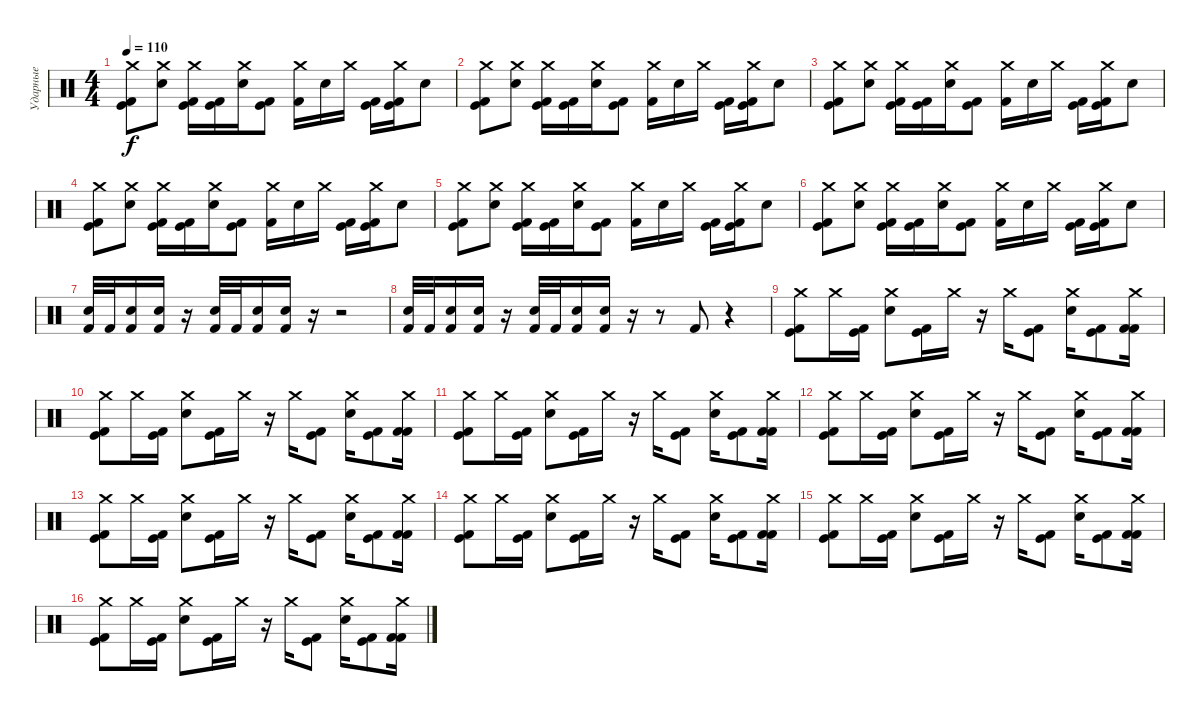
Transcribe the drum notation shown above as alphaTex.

\track ("Ударные" "Ударные") {instrument percussion}
\staff {score}
\articulation defaults
\ts (4 4)
\tempo 110
\clef neutral
\ks c
("Crash medium (hit)" "Kick (hit) 2" "Kick (hit)").8{dy f} ("Crash medium (hit)" "Electric Snare (hit)").8 ("Crash medium (hit)" "Kick (hit) 2" "Kick (hit)").16 ("Kick (hit) 2" "Kick (hit)").16 ("Crash medium (hit)" "Electric Snare (hit)").16 ("Kick (hit) 2" "Kick (hit)").8 ("Crash medium (hit)" "Kick (hit) 2").16 "Electric Snare (hit)".16 "Crash medium (hit)".16 ("Kick (hit) 2" "Kick (hit)").16 ("Crash medium (hit)" "Kick (hit) 2" "Kick (hit)").16 "Electric Snare (hit)".8 |
("Crash medium (hit)" "Kick (hit) 2" "Kick (hit)").8 ("Crash medium (hit)" "Electric Snare (hit)").8 ("Crash medium (hit)" "Kick (hit) 2" "Kick (hit)").16 ("Kick (hit) 2" "Kick (hit)").16 ("Crash medium (hit)" "Electric Snare (hit)").16 ("Kick (hit) 2" "Kick (hit)").8 ("Crash medium (hit)" "Kick (hit) 2").16 "Electric Snare (hit)".16 "Crash medium (hit)".16 ("Kick (hit) 2" "Kick (hit)").16 ("Crash medium (hit)" "Kick (hit) 2" "Kick (hit)").16 "Electric Snare (hit)".8 |
("Crash medium (hit)" "Kick (hit) 2" "Kick (hit)").8 ("Crash medium (hit)" "Electric Snare (hit)").8 ("Crash medium (hit)" "Kick (hit) 2" "Kick (hit)").16 ("Kick (hit) 2" "Kick (hit)").16 ("Crash medium (hit)" "Electric Snare (hit)").16 ("Kick (hit) 2" "Kick (hit)").8 ("Crash medium (hit)" "Kick (hit) 2").16 "Electric Snare (hit)".16 "Crash medium (hit)".16 ("Kick (hit) 2" "Kick (hit)").16 ("Crash medium (hit)" "Kick (hit) 2" "Kick (hit)").16 "Electric Snare (hit)".8 |
("Crash medium (hit)" "Kick (hit) 2" "Kick (hit)").8 ("Crash medium (hit)" "Electric Snare (hit)").8 ("Crash medium (hit)" "Kick (hit) 2" "Kick (hit)").16 ("Kick (hit) 2" "Kick (hit)").16 ("Crash medium (hit)" "Electric Snare (hit)").16 ("Kick (hit) 2" "Kick (hit)").8 ("Crash medium (hit)" "Kick (hit) 2").16 "Electric Snare (hit)".16 "Crash medium (hit)".16 ("Kick (hit) 2" "Kick (hit)").16 ("Crash medium (hit)" "Kick (hit) 2" "Kick (hit)").16 "Electric Snare (hit)".8 |
("Crash medium (hit)" "Kick (hit) 2" "Kick (hit)").8 ("Crash medium (hit)" "Electric Snare (hit)").8 ("Crash medium (hit)" "Kick (hit) 2" "Kick (hit)").16 ("Kick (hit) 2" "Kick (hit)").16 ("Crash medium (hit)" "Electric Snare (hit)").16 ("Kick (hit) 2" "Kick (hit)").8 ("Crash medium (hit)" "Kick (hit) 2").16 "Electric Snare (hit)".16 "Crash medium (hit)".16 ("Kick (hit) 2" "Kick (hit)").16 ("Crash medium (hit)" "Kick (hit) 2" "Kick (hit)").16 "Electric Snare (hit)".8 |
("Crash medium (hit)" "Kick (hit) 2" "Kick (hit)").8 ("Crash medium (hit)" "Electric Snare (hit)").8 ("Crash medium (hit)" "Kick (hit) 2" "Kick (hit)").16 ("Kick (hit) 2" "Kick (hit)").16 ("Crash medium (hit)" "Electric Snare (hit)").16 ("Kick (hit) 2" "Kick (hit)").8 ("Crash medium (hit)" "Kick (hit) 2").16 "Electric Snare (hit)".16 "Crash medium (hit)".16 ("Kick (hit) 2" "Kick (hit)").16 ("Crash medium (hit)" "Kick (hit) 2" "Kick (hit)").16 "Electric Snare (hit)".8 |
("Electric Snare (hit)" "Kick (hit) 2").32 "Kick (hit) 2".32 ("Electric Snare (hit)" "Kick (hit) 2").16 ("Electric Snare (hit)" "Kick (hit) 2").16 r.16 ("Electric Snare (hit)" "Kick (hit) 2").32 "Kick (hit) 2".32 ("Electric Snare (hit)" "Kick (hit) 2").16 ("Electric Snare (hit)" "Kick (hit) 2").16 r.16 r.2 |
("Electric Snare (hit)" "Kick (hit) 2").32 "Kick (hit) 2".32 ("Electric Snare (hit)" "Kick (hit) 2").16 ("Electric Snare (hit)" "Kick (hit) 2").16 r.16 ("Electric Snare (hit)" "Kick (hit) 2").32 "Kick (hit) 2".32 ("Electric Snare (hit)" "Kick (hit) 2").16 ("Electric Snare (hit)" "Kick (hit) 2").16 r.16 r.8 "Kick (hit) 2".8 r.4 |
("Crash medium (hit)" "Kick (hit) 2" "Kick (hit)").8 "Crash medium (hit)".16 ("Kick (hit) 2" "Kick (hit)").16 ("Crash medium (hit)" "Electric Snare (hit)").8 ("Kick (hit) 2" "Kick (hit)").16 "Crash medium (hit)".16 r.16 "Crash medium (hit)".16 ("Kick (hit) 2" "Kick (hit)").8 ("Crash medium (hit)" "Electric Snare (hit)").16 ("Kick (hit) 2" "Kick (hit)").8 ("Crash medium (hit)" "Kick (hit) 2" "Kick (hit) 2").16 |
("Crash medium (hit)" "Kick (hit) 2" "Kick (hit)").8 "Crash medium (hit)".16 ("Kick (hit) 2" "Kick (hit)").16 ("Crash medium (hit)" "Electric Snare (hit)").8 ("Kick (hit) 2" "Kick (hit)").16 "Crash medium (hit)".16 r.16 "Crash medium (hit)".16 ("Kick (hit) 2" "Kick (hit)").8 ("Crash medium (hit)" "Electric Snare (hit)").16 ("Kick (hit) 2" "Kick (hit)").8 ("Crash medium (hit)" "Kick (hit) 2" "Kick (hit) 2").16 |
("Crash medium (hit)" "Kick (hit) 2" "Kick (hit)").8 "Crash medium (hit)".16 ("Kick (hit) 2" "Kick (hit)").16 ("Crash medium (hit)" "Electric Snare (hit)").8 ("Kick (hit) 2" "Kick (hit)").16 "Crash medium (hit)".16 r.16 "Crash medium (hit)".16 ("Kick (hit) 2" "Kick (hit)").8 ("Crash medium (hit)" "Electric Snare (hit)").16 ("Kick (hit) 2" "Kick (hit)").8 ("Crash medium (hit)" "Kick (hit) 2" "Kick (hit) 2").16 |
("Crash medium (hit)" "Kick (hit) 2" "Kick (hit)").8 "Crash medium (hit)".16 ("Kick (hit) 2" "Kick (hit)").16 ("Crash medium (hit)" "Electric Snare (hit)").8 ("Kick (hit) 2" "Kick (hit)").16 "Crash medium (hit)".16 r.16 "Crash medium (hit)".16 ("Kick (hit) 2" "Kick (hit)").8 ("Crash medium (hit)" "Electric Snare (hit)").16 ("Kick (hit) 2" "Kick (hit)").8 ("Crash medium (hit)" "Kick (hit) 2" "Kick (hit) 2").16 |
("Crash medium (hit)" "Kick (hit) 2" "Kick (hit)").8 "Crash medium (hit)".16 ("Kick (hit) 2" "Kick (hit)").16 ("Crash medium (hit)" "Electric Snare (hit)").8 ("Kick (hit) 2" "Kick (hit)").16 "Crash medium (hit)".16 r.16 "Crash medium (hit)".16 ("Kick (hit) 2" "Kick (hit)").8 ("Crash medium (hit)" "Electric Snare (hit)").16 ("Kick (hit) 2" "Kick (hit)").8 ("Crash medium (hit)" "Kick (hit) 2" "Kick (hit) 2").16 |
("Crash medium (hit)" "Kick (hit) 2" "Kick (hit)").8 "Crash medium (hit)".16 ("Kick (hit) 2" "Kick (hit)").16 ("Crash medium (hit)" "Electric Snare (hit)").8 ("Kick (hit) 2" "Kick (hit)").16 "Crash medium (hit)".16 r.16 "Crash medium (hit)".16 ("Kick (hit) 2" "Kick (hit)").8 ("Crash medium (hit)" "Electric Snare (hit)").16 ("Kick (hit) 2" "Kick (hit)").8 ("Crash medium (hit)" "Kick (hit) 2" "Kick (hit) 2").16 |
("Crash medium (hit)" "Kick (hit) 2" "Kick (hit)").8 "Crash medium (hit)".16 ("Kick (hit) 2" "Kick (hit)").16 ("Crash medium (hit)" "Electric Snare (hit)").8 ("Kick (hit) 2" "Kick (hit)").16 "Crash medium (hit)".16 r.16 "Crash medium (hit)".16 ("Kick (hit) 2" "Kick (hit)").8 ("Crash medium (hit)" "Electric Snare (hit)").16 ("Kick (hit) 2" "Kick (hit)").8 ("Crash medium (hit)" "Kick (hit) 2" "Kick (hit) 2").16 |
("Crash medium (hit)" "Kick (hit) 2" "Kick (hit)").8 "Crash medium (hit)".16 ("Kick (hit) 2" "Kick (hit)").16 ("Crash medium (hit)" "Electric Snare (hit)").8 ("Kick (hit) 2" "Kick (hit)").16 "Crash medium (hit)".16 r.16 "Crash medium (hit)".16 ("Kick (hit) 2" "Kick (hit)").8 ("Crash medium (hit)" "Electric Snare (hit)").16 ("Kick (hit) 2" "Kick (hit)").8 ("Crash medium (hit)" "Kick (hit) 2" "Kick (hit) 2").16
